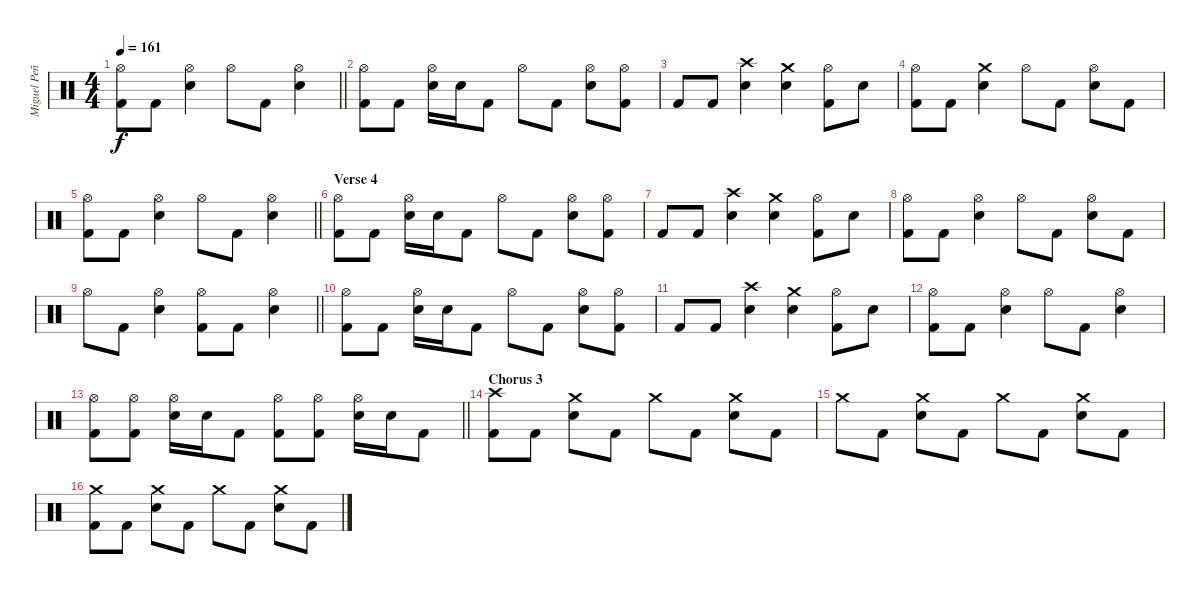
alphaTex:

\track ("Miguel Peñas" "Miguel Peñ") {instrument percussion}
\staff {score}
\articulation defaults
\ts (4 4)
\tempo 161
\clef neutral
\barLineRight lightlight
\ks c
("Hi-Hat (open)" "Kick (hit) 2").8{dy f} "Kick (hit) 2".8 ("Hi-Hat (open)" "Electric Snare (hit)").4 "Hi-Hat (open)".8 "Kick (hit) 2".8 ("Hi-Hat (open)" "Electric Snare (hit)").4 |
("Hi-Hat (open)" "Kick (hit) 2").8 "Kick (hit) 2".8 ("Hi-Hat (open)" "Electric Snare (hit)").16 "Electric Snare (hit)".16 "Kick (hit) 2".8 "Hi-Hat (open)".8 "Kick (hit) 2".8 ("Hi-Hat (open)" "Electric Snare (hit)").8 ("Hi-Hat (open)" "Kick (hit) 2").8 |
"Kick (hit) 2".8 "Kick (hit) 2".8 ("Crash high (hit)" "Electric Snare (hit)").4 ("Crash medium (hit)" "Electric Snare (hit)").4 ("Hi-Hat (open)" "Kick (hit) 2").8 "Electric Snare (hit)".8 |
("Hi-Hat (open)" "Kick (hit) 2").8 "Kick (hit) 2".8 ("Crash medium (hit)" "Electric Snare (hit)").4 "Hi-Hat (open)".8 "Kick (hit) 2".8 ("Hi-Hat (open)" "Electric Snare (hit)").8 "Kick (hit) 2".8 |
\barLineRight lightlight
("Hi-Hat (open)" "Kick (hit) 2").8 "Kick (hit) 2".8 ("Hi-Hat (open)" "Electric Snare (hit)").4 "Hi-Hat (open)".8 "Kick (hit) 2".8 ("Hi-Hat (open)" "Electric Snare (hit)").4 |
\section ("" "Verse 4")
("Hi-Hat (open)" "Kick (hit) 2").8 "Kick (hit) 2".8 ("Hi-Hat (open)" "Electric Snare (hit)").16 "Electric Snare (hit)".16 "Kick (hit) 2".8 "Hi-Hat (open)".8 "Kick (hit) 2".8 ("Hi-Hat (open)" "Electric Snare (hit)").8 ("Hi-Hat (open)" "Kick (hit) 2").8 |
"Kick (hit) 2".8 "Kick (hit) 2".8 ("Crash high (hit)" "Electric Snare (hit)").4 ("Crash medium (hit)" "Electric Snare (hit)").4 ("Hi-Hat (open)" "Kick (hit) 2").8 "Electric Snare (hit)".8 |
("Hi-Hat (open)" "Kick (hit) 2").8 "Kick (hit) 2".8 ("Hi-Hat (open)" "Electric Snare (hit)").4 "Hi-Hat (open)".8 "Kick (hit) 2".8 ("Hi-Hat (open)" "Electric Snare (hit)").8 "Kick (hit) 2".8 |
\barLineRight lightlight "Hi-Hat (open)".8 "Kick (hit) 2".8
("Hi-Hat (open)" "Electric Snare (hit)").4 ("Hi-Hat (open)" "Kick (hit) 2").8 "Kick (hit) 2".8 ("Hi-Hat (open)" "Electric Snare (hit)").4 |
("Hi-Hat (open)" "Kick (hit) 2").8 "Kick (hit) 2".8 ("Hi-Hat (open)" "Electric Snare (hit)").16 "Electric Snare (hit)".16 "Kick (hit) 2".8 "Hi-Hat (open)".8 "Kick (hit) 2".8 ("Hi-Hat (open)" "Electric Snare (hit)").8 ("Hi-Hat (open)" "Kick (hit) 2").8 |
"Kick (hit) 2".8 "Kick (hit) 2".8 ("Crash high (hit)" "Electric Snare (hit)").4 ("Crash medium (hit)" "Electric Snare (hit)").4 ("Hi-Hat (open)" "Kick (hit) 2").8 "Electric Snare (hit)".8 |
("Hi-Hat (open)" "Kick (hit) 2").8 "Kick (hit) 2".8 ("Hi-Hat (open)" "Electric Snare (hit)").4 "Hi-Hat (open)".8 "Kick (hit) 2".8 ("Hi-Hat (open)" "Electric Snare (hit)").4 |
\barLineRight lightlight
("Hi-Hat (open)" "Kick (hit) 2").8 ("Hi-Hat (open)" "Kick (hit) 2").8 ("Hi-Hat (open)" "Electric Snare (hit)").16 "Electric Snare (hit)".16 "Kick (hit) 2".8 ("Hi-Hat (open)" "Kick (hit) 2").8 ("Hi-Hat (open)" "Kick (hit) 2").8 ("Hi-Hat (open)" "Electric Snare (hit)").16 "Electric Snare (hit)".16 "Kick (hit) 2".8 |
\section ("" "Chorus 3")
("Crash high (hit)" "Kick (hit) 2").8 "Kick (hit) 2".8 ("Crash medium (hit)" "Electric Snare (hit)").8 "Kick (hit) 2".8 "Crash medium (hit)".8 "Kick (hit) 2".8 ("Crash medium (hit)" "Electric Snare (hit)").8 "Kick (hit) 2".8 |
"Crash medium (hit)".8 "Kick (hit) 2".8 ("Crash medium (hit)" "Electric Snare (hit)").8 "Kick (hit) 2".8 "Crash medium (hit)".8 "Kick (hit) 2".8 ("Crash medium (hit)" "Electric Snare (hit)").8 "Kick (hit) 2".8 |
("Crash medium (hit)" "Kick (hit) 2").8 "Kick (hit) 2".8 ("Crash medium (hit)" "Electric Snare (hit)").8 "Kick (hit) 2".8 "Crash medium (hit)".8 "Kick (hit) 2".8 ("Crash medium (hit)" "Electric Snare (hit)").8 "Kick (hit) 2".8
